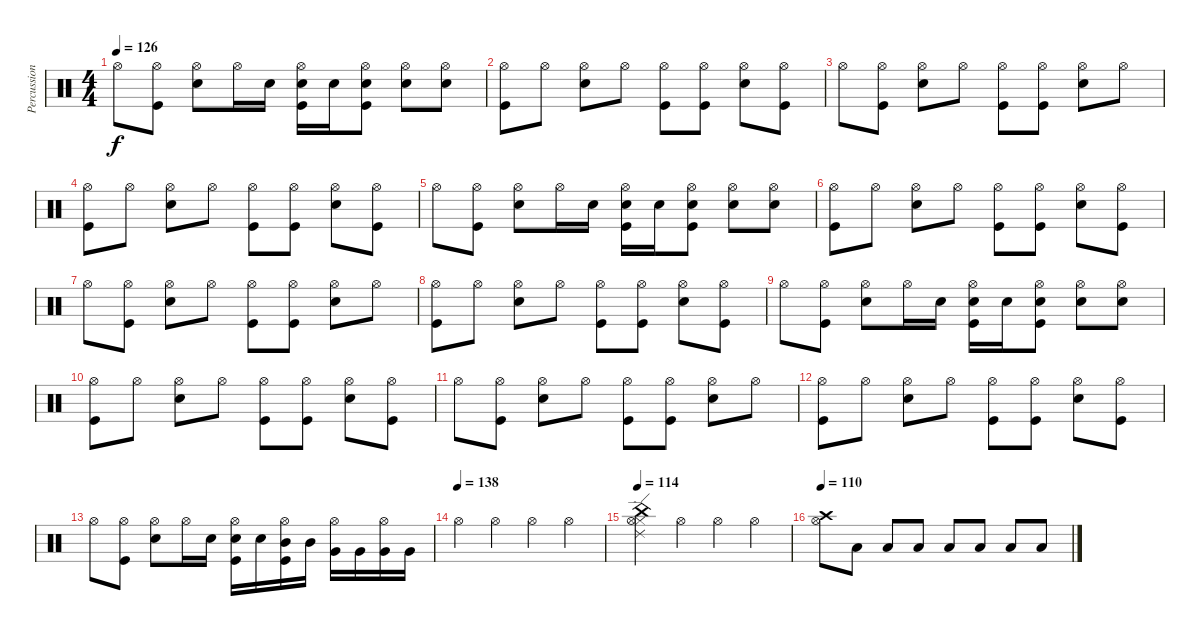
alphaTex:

\track ("Percussion" "Percussion") {instrument percussion}
\staff {score}
\articulation defaults
\ts (4 4)
\tempo 126
\clef neutral
\ks c "Hi-Hat (open)".8{dy f}
("Hi-Hat (open)" "Kick (hit)").8 ("Hi-Hat (open)" "Electric Snare (hit)").8 "Hi-Hat (open)".16 "Electric Snare (hit)".16 ("Kick (hit)" "Electric Snare (hit)" "Hi-Hat (open)").16 "Electric Snare (hit)".16 ("Electric Snare (hit)" "Hi-Hat (open)" "Kick (hit)").8 ("Hi-Hat (open)" "Electric Snare (hit)").8 ("Electric Snare (hit)" "Hi-Hat (open)").8 |
("Hi-Hat (open)" "Kick (hit)").8 "Hi-Hat (open)".8 ("Electric Snare (hit)" "Hi-Hat (open)").8 "Hi-Hat (open)".8 ("Kick (hit)" "Hi-Hat (open)").8 ("Hi-Hat (open)" "Kick (hit)").8 ("Hi-Hat (open)" "Electric Snare (hit)").8 ("Kick (hit)" "Hi-Hat (open)").8 |
"Hi-Hat (open)".8 ("Kick (hit)" "Hi-Hat (open)").8 ("Electric Snare (hit)" "Hi-Hat (open)").8 "Hi-Hat (open)".8 ("Kick (hit)" "Hi-Hat (open)").8 ("Kick (hit)" "Hi-Hat (open)").8 ("Electric Snare (hit)" "Hi-Hat (open)").8 "Hi-Hat (open)".8 |
("Hi-Hat (open)" "Kick (hit)").8 "Hi-Hat (open)".8 ("Hi-Hat (open)" "Electric Snare (hit)").8 "Hi-Hat (open)".8 ("Hi-Hat (open)" "Kick (hit)").8 ("Hi-Hat (open)" "Kick (hit)").8 ("Hi-Hat (open)" "Electric Snare (hit)").8 ("Kick (hit)" "Hi-Hat (open)").8 |
"Hi-Hat (open)".8 ("Hi-Hat (open)" "Kick (hit)").8 ("Hi-Hat (open)" "Electric Snare (hit)").8 "Hi-Hat (open)".16 "Electric Snare (hit)".16 ("Kick (hit)" "Electric Snare (hit)" "Hi-Hat (open)").16 "Electric Snare (hit)".16 ("Electric Snare (hit)" "Hi-Hat (open)" "Kick (hit)").8 ("Hi-Hat (open)" "Electric Snare (hit)").8 ("Electric Snare (hit)" "Hi-Hat (open)").8 |
("Hi-Hat (open)" "Kick (hit)").8 "Hi-Hat (open)".8 ("Electric Snare (hit)" "Hi-Hat (open)").8 "Hi-Hat (open)".8 ("Kick (hit)" "Hi-Hat (open)").8 ("Hi-Hat (open)" "Kick (hit)").8 ("Hi-Hat (open)" "Electric Snare (hit)").8 ("Kick (hit)" "Hi-Hat (open)").8 |
"Hi-Hat (open)".8 ("Kick (hit)" "Hi-Hat (open)").8 ("Electric Snare (hit)" "Hi-Hat (open)").8 "Hi-Hat (open)".8 ("Kick (hit)" "Hi-Hat (open)").8 ("Kick (hit)" "Hi-Hat (open)").8 ("Electric Snare (hit)" "Hi-Hat (open)").8 "Hi-Hat (open)".8 |
("Hi-Hat (open)" "Kick (hit)").8 "Hi-Hat (open)".8 ("Hi-Hat (open)" "Electric Snare (hit)").8 "Hi-Hat (open)".8 ("Hi-Hat (open)" "Kick (hit)").8 ("Hi-Hat (open)" "Kick (hit)").8 ("Hi-Hat (open)" "Electric Snare (hit)").8 ("Kick (hit)" "Hi-Hat (open)").8 |
"Hi-Hat (open)".8 ("Hi-Hat (open)" "Kick (hit)").8 ("Hi-Hat (open)" "Electric Snare (hit)").8 "Hi-Hat (open)".16 "Electric Snare (hit)".16 ("Kick (hit)" "Electric Snare (hit)" "Hi-Hat (open)").16 "Electric Snare (hit)".16 ("Electric Snare (hit)" "Hi-Hat (open)" "Kick (hit)").8 ("Hi-Hat (open)" "Electric Snare (hit)").8 ("Electric Snare (hit)" "Hi-Hat (open)").8 |
("Hi-Hat (open)" "Kick (hit)").8 "Hi-Hat (open)".8 ("Electric Snare (hit)" "Hi-Hat (open)").8 "Hi-Hat (open)".8 ("Kick (hit)" "Hi-Hat (open)").8 ("Hi-Hat (open)" "Kick (hit)").8 ("Hi-Hat (open)" "Electric Snare (hit)").8 ("Kick (hit)" "Hi-Hat (open)").8 |
"Hi-Hat (open)".8 ("Kick (hit)" "Hi-Hat (open)").8 ("Electric Snare (hit)" "Hi-Hat (open)").8 "Hi-Hat (open)".8 ("Kick (hit)" "Hi-Hat (open)").8 ("Kick (hit)" "Hi-Hat (open)").8 ("Electric Snare (hit)" "Hi-Hat (open)").8 "Hi-Hat (open)".8 |
("Hi-Hat (open)" "Kick (hit)").8 "Hi-Hat (open)".8 ("Hi-Hat (open)" "Electric Snare (hit)").8 "Hi-Hat (open)".8 ("Hi-Hat (open)" "Kick (hit)").8 ("Hi-Hat (open)" "Kick (hit)").8 ("Hi-Hat (open)" "Electric Snare (hit)").8 ("Kick (hit)" "Hi-Hat (open)").8 |
"Hi-Hat (open)".8 ("Hi-Hat (open)" "Kick (hit)").8 ("Hi-Hat (open)" "Electric Snare (hit)").8 "Hi-Hat (open)".16 "Electric Snare (hit)".16 ("Kick (hit)" "Electric Snare (hit)" "Hi-Hat (open)").16 "Electric Snare (hit)".16 ("Mid Tom (hit)" "Hi-Hat (open)" "Kick (hit)").16 "Mid Tom (hit)".16 ("Very Low Tom (hit)" "Hi-Hat (open)").16 "Very Low Tom (hit)".16 ("Hi-Hat (open)" "Very Low Tom (hit)").16 "Very Low Tom (hit)".16 |
\tempo (138)
"Hi-Hat (open)".4 "Hi-Hat (open)".4 "Hi-Hat (open)".4 "Hi-Hat (open)".4 |
\tempo 114
("Hi-Hat (closed)" "Hi-Hat (open)" "China (hit)" "Ride (edge) 2").4 "Hi-Hat (open)".4 "Hi-Hat (open)".4 "Hi-Hat (open)".4 |
\tempo 110
("Hi-Hat (open)" "Crash high (hit)").8 "Low Floor Tom (hit)".8 "Low Floor Tom (hit)".8 "Low Floor Tom (hit)".8 "Low Floor Tom (hit)".8 "Low Floor Tom (hit)".8 "Low Floor Tom (hit)".8 "Low Floor Tom (hit)".8
